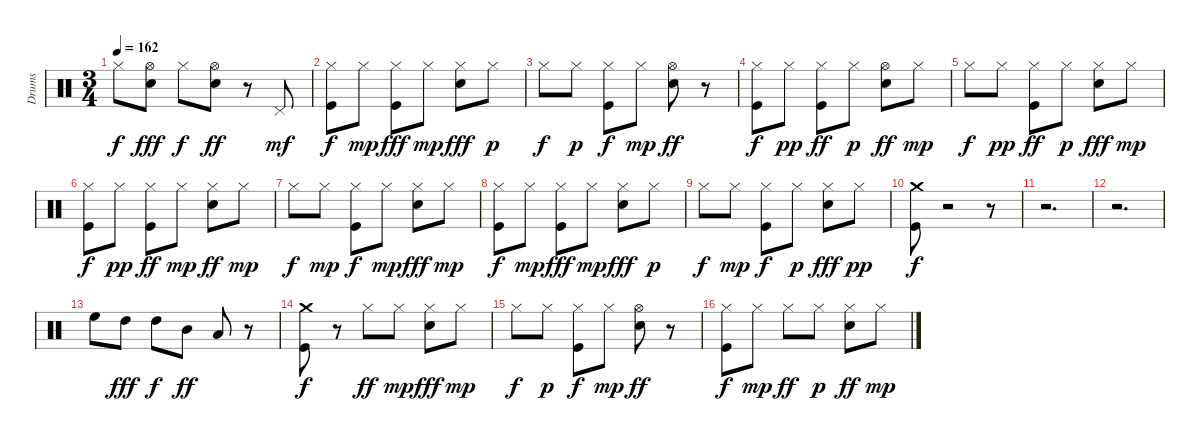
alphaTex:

\track ("Drums" "Drums") {instrument percussion}
\staff {score}
\articulation defaults
\ts (3 4)
\tempo 162
\clef neutral
\ks c "Hi-Hat (closed)".8{dy f}
("Electric Snare (hit)" "Hi-Hat (open)").8{dy fff} "Hi-Hat (closed)".8{dy f} ("Electric Snare (hit)" "Hi-Hat (open)").8{dy ff} r.8 "Pedal Hi-Hat (hit)".8{dy mf} |
("Kick (hit)" "Hi-Hat (closed)").8{dy f} "Hi-Hat (closed)".8{dy mp} ("Kick (hit)" "Hi-Hat (closed)").8{dy fff} "Hi-Hat (closed)".8{dy mp} ("Electric Snare (hit)" "Hi-Hat (closed)").8{dy fff} "Hi-Hat (closed)".8{dy p} |
"Hi-Hat (closed)".8{dy f} "Hi-Hat (closed)".8{dy p} ("Kick (hit)" "Hi-Hat (closed)").8{dy f} "Hi-Hat (closed)".8{dy mp} ("Electric Snare (hit)" "Hi-Hat (open)").8{dy ff} r.8 |
("Kick (hit)" "Hi-Hat (closed)").8{dy f} "Hi-Hat (closed)".8{dy pp} ("Kick (hit)" "Hi-Hat (closed)").8{dy ff} "Hi-Hat (closed)".8{dy p} ("Electric Snare (hit)" "Hi-Hat (open)").8{dy ff} "Hi-Hat (closed)".8{dy mp} |
"Hi-Hat (closed)".8{dy f} "Hi-Hat (closed)".8{dy pp} ("Kick (hit)" "Hi-Hat (closed)").8{dy ff} "Hi-Hat (closed)".8{dy p} ("Electric Snare (hit)" "Hi-Hat (closed)").8{dy fff} "Hi-Hat (closed)".8{dy mp} |
("Kick (hit)" "Hi-Hat (closed)").8{dy f} "Hi-Hat (closed)".8{dy pp} ("Kick (hit)" "Hi-Hat (closed)").8{dy ff} "Hi-Hat (closed)".8{dy mp} ("Electric Snare (hit)" "Hi-Hat (closed)").8{dy ff} "Hi-Hat (closed)".8{dy mp} |
"Hi-Hat (closed)".8{dy f} "Hi-Hat (closed)".8{dy mp} ("Kick (hit)" "Hi-Hat (closed)").8{dy f} "Hi-Hat (closed)".8{dy mp} ("Electric Snare (hit)" "Hi-Hat (closed)").8{dy fff} "Hi-Hat (closed)".8{dy mp} |
("Kick (hit)" "Hi-Hat (closed)").8{dy f} "Hi-Hat (closed)".8{dy mp} ("Kick (hit)" "Hi-Hat (closed)").8{dy fff} "Hi-Hat (closed)".8{dy mp} ("Electric Snare (hit)" "Hi-Hat (closed)").8{dy fff} "Hi-Hat (closed)".8{dy p} |
"Hi-Hat (closed)".8{dy f} "Hi-Hat (closed)".8{dy mp} ("Kick (hit)" "Hi-Hat (closed)").8{dy f} "Hi-Hat (closed)".8{dy p} ("Electric Snare (hit)" "Hi-Hat (closed)").8{dy fff} "Hi-Hat (closed)".8{dy pp} |
("Kick (hit)" "Crash medium (hit)").8{dy f} r.2 r.8 |
r.2{d} |
r.2{d} |
"High Floor Tom (hit)".8 "High Tom (hit)".8{dy fff} "High Tom (hit)".8{dy f} "Mid Tom (hit)".8{dy ff} "Low Tom (hit)".8 r.8 |
("Kick (hit)" "Crash medium (hit)").8{dy f} r.8 "Hi-Hat (closed)".8{dy ff} "Hi-Hat (closed)".8{dy mp} ("Electric Snare (hit)" "Hi-Hat (closed)").8{dy fff} "Hi-Hat (closed)".8{dy mp} |
"Hi-Hat (closed)".8{dy f} "Hi-Hat (closed)".8{dy p} ("Kick (hit)" "Hi-Hat (closed)").8{dy f} "Hi-Hat (closed)".8{dy mp} ("Electric Snare (hit)" "Hi-Hat (open)").8{dy ff} r.8 |
("Kick (hit)" "Hi-Hat (closed)").8{dy f} "Hi-Hat (closed)".8{dy mp} "Hi-Hat (closed)".8{dy ff} "Hi-Hat (closed)".8{dy p} ("Electric Snare (hit)" "Hi-Hat (closed)").8{dy ff} "Hi-Hat (closed)".8{dy mp}
